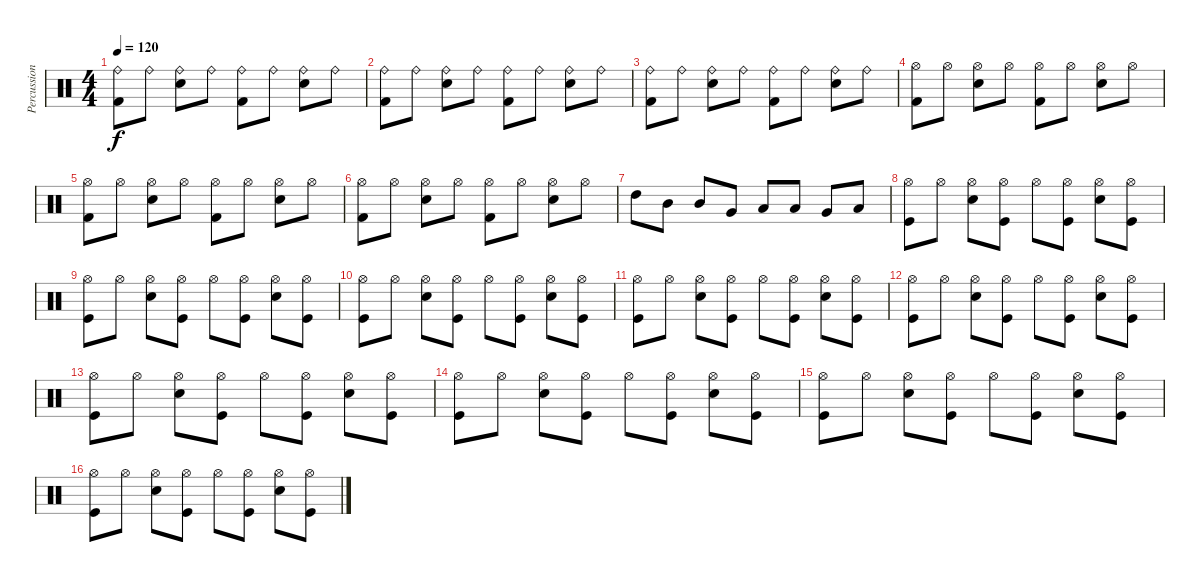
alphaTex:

\track ("Percussion" "Percussion") {instrument percussion}
\staff {score}
\articulation defaults
\ts (4 4)
\tempo 120
\clef neutral
\ks c
("Ride (bell)" "Kick (hit) 2").8{dy f} "Ride (bell)".8 ("Ride (bell)" "Electric Snare (hit)").8 "Ride (bell)".8 ("Ride (bell)" "Kick (hit) 2").8 "Ride (bell)".8 ("Ride (bell)" "Electric Snare (hit)").8 "Ride (bell)".8 |
("Ride (bell)" "Kick (hit) 2").8 "Ride (bell)".8 ("Ride (bell)" "Electric Snare (hit)").8 "Ride (bell)".8 ("Ride (bell)" "Kick (hit) 2").8 "Ride (bell)".8 ("Ride (bell)" "Electric Snare (hit)").8 "Ride (bell)".8 |
("Ride (bell)" "Kick (hit) 2").8 "Ride (bell)".8 ("Ride (bell)" "Electric Snare (hit)").8 "Ride (bell)".8 ("Ride (bell)" "Kick (hit) 2").8 "Ride (bell)".8 ("Ride (bell)" "Electric Snare (hit)").8 "Ride (bell)".8 |
("Hi-Hat (open)" "Kick (hit) 2").8 "Hi-Hat (open)".8 ("Hi-Hat (open)" "Electric Snare (hit)").8 "Hi-Hat (open)".8 ("Hi-Hat (open)" "Kick (hit) 2").8 "Hi-Hat (open)".8 ("Hi-Hat (open)" "Electric Snare (hit)").8 "Hi-Hat (open)".8 |
("Hi-Hat (open)" "Kick (hit) 2").8 "Hi-Hat (open)".8 ("Hi-Hat (open)" "Electric Snare (hit)").8 "Hi-Hat (open)".8 ("Hi-Hat (open)" "Kick (hit) 2").8 "Hi-Hat (open)".8 ("Hi-Hat (open)" "Electric Snare (hit)").8 "Hi-Hat (open)".8 |
("Hi-Hat (open)" "Kick (hit) 2").8 "Hi-Hat (open)".8 ("Hi-Hat (open)" "Electric Snare (hit)").8 "Hi-Hat (open)".8 ("Hi-Hat (open)" "Kick (hit) 2").8 "Hi-Hat (open)".8 ("Hi-Hat (open)" "Electric Snare (hit)").8 "Hi-Hat (open)".8 |
"High Tom (hit)".8 "Mid Tom (hit)".8 "Mid Tom (hit)".8 "Very Low Tom (hit)".8 "Low Floor Tom (hit)".8 "Low Floor Tom (hit)".8 "Very Low Tom (hit)".8 "Low Floor Tom (hit)".8 |
("Hi-Hat (open)" "Kick (hit)").8 "Hi-Hat (open)".8 ("Hi-Hat (open)" "Snare (hit) 2").8 ("Hi-Hat (open)" "Kick (hit)").8 "Hi-Hat (open)".8 ("Hi-Hat (open)" "Kick (hit)").8 ("Hi-Hat (open)" "Snare (hit) 2").8 ("Hi-Hat (open)" "Kick (hit)").8 |
("Hi-Hat (open)" "Kick (hit)").8 "Hi-Hat (open)".8 ("Hi-Hat (open)" "Snare (hit) 2").8 ("Hi-Hat (open)" "Kick (hit)").8 "Hi-Hat (open)".8 ("Hi-Hat (open)" "Kick (hit)").8 ("Hi-Hat (open)" "Snare (hit) 2").8 ("Hi-Hat (open)" "Kick (hit)").8 |
("Hi-Hat (open)" "Kick (hit)").8 "Hi-Hat (open)".8 ("Hi-Hat (open)" "Snare (hit) 2").8 ("Hi-Hat (open)" "Kick (hit)").8 "Hi-Hat (open)".8 ("Hi-Hat (open)" "Kick (hit)").8 ("Hi-Hat (open)" "Snare (hit) 2").8 ("Hi-Hat (open)" "Kick (hit)").8 |
("Hi-Hat (open)" "Kick (hit)").8 "Hi-Hat (open)".8 ("Hi-Hat (open)" "Snare (hit) 2").8 ("Hi-Hat (open)" "Kick (hit)").8 "Hi-Hat (open)".8 ("Hi-Hat (open)" "Kick (hit)").8 ("Hi-Hat (open)" "Snare (hit) 2").8 ("Hi-Hat (open)" "Kick (hit)").8 |
("Hi-Hat (open)" "Kick (hit)").8 "Hi-Hat (open)".8 ("Hi-Hat (open)" "Snare (hit) 2").8 ("Hi-Hat (open)" "Kick (hit)").8 "Hi-Hat (open)".8 ("Hi-Hat (open)" "Kick (hit)").8 ("Hi-Hat (open)" "Snare (hit) 2").8 ("Hi-Hat (open)" "Kick (hit)").8 |
("Hi-Hat (open)" "Kick (hit)").8 "Hi-Hat (open)".8 ("Hi-Hat (open)" "Snare (hit) 2").8 ("Hi-Hat (open)" "Kick (hit)").8 "Hi-Hat (open)".8 ("Hi-Hat (open)" "Kick (hit)").8 ("Hi-Hat (open)" "Snare (hit) 2").8 ("Hi-Hat (open)" "Kick (hit)").8 |
("Hi-Hat (open)" "Kick (hit)").8 "Hi-Hat (open)".8 ("Hi-Hat (open)" "Snare (hit) 2").8 ("Hi-Hat (open)" "Kick (hit)").8 "Hi-Hat (open)".8 ("Hi-Hat (open)" "Kick (hit)").8 ("Hi-Hat (open)" "Snare (hit) 2").8 ("Hi-Hat (open)" "Kick (hit)").8 |
("Hi-Hat (open)" "Kick (hit)").8 "Hi-Hat (open)".8 ("Hi-Hat (open)" "Snare (hit) 2").8 ("Hi-Hat (open)" "Kick (hit)").8 "Hi-Hat (open)".8 ("Hi-Hat (open)" "Kick (hit)").8 ("Hi-Hat (open)" "Snare (hit) 2").8 ("Hi-Hat (open)" "Kick (hit)").8 |
("Hi-Hat (open)" "Kick (hit)").8 "Hi-Hat (open)".8 ("Hi-Hat (open)" "Snare (hit) 2").8 ("Hi-Hat (open)" "Kick (hit)").8 "Hi-Hat (open)".8 ("Hi-Hat (open)" "Kick (hit)").8 ("Hi-Hat (open)" "Snare (hit) 2").8 ("Hi-Hat (open)" "Kick (hit)").8
